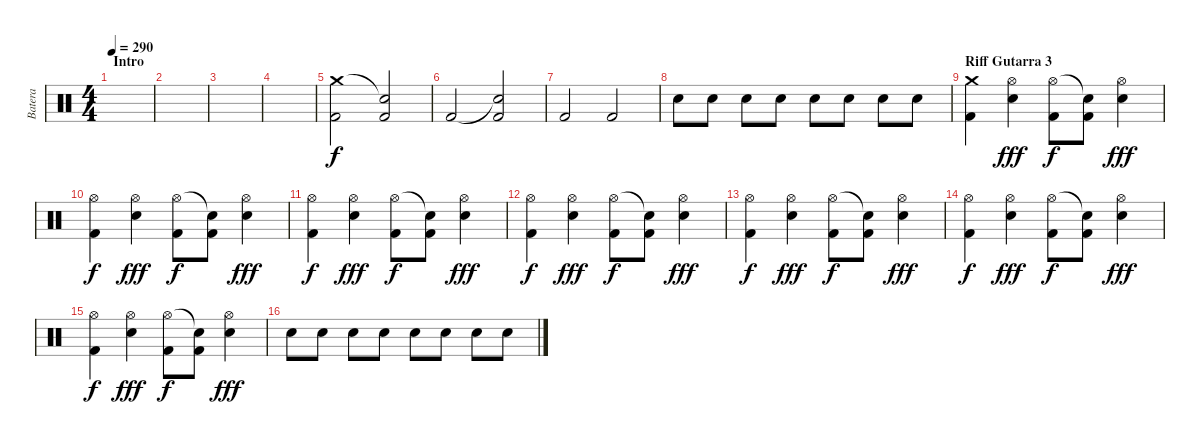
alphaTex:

\track ("Batera" "Batera") {instrument percussion}
\staff {score}
\articulation defaults
\ts (4 4)
\section ("" "Intro")
\tempo 290
\clef neutral
\ks c
|
|
|
|
("Crash medium (hit)" "Kick (hit) 2").2 ("Snare (hit)"{t} "Kick (hit) 2").2 |
"Kick (hit) 2".2 ("Snare (hit)"{t} "Kick (hit) 2").2 |
"Kick (hit) 2".2 "Kick (hit) 2".2 |
"Electric Snare (hit)".8 "Electric Snare (hit)".8 "Electric Snare (hit)".8 "Electric Snare (hit)".8 "Electric Snare (hit)".8 "Electric Snare (hit)".8 "Electric Snare (hit)".8 "Electric Snare (hit)".8 |
\section ("" "Riff Gutarra 3")
("Crash medium (hit)" "Kick (hit) 2").4 ("Hi-Hat (open)" "Electric Snare (hit)").4{dy fff} ("Hi-Hat (open)" "Kick (hit) 2").8{dy f} ("Snare (hit)"{t} "Kick (hit) 2").8 ("Hi-Hat (open)" "Electric Snare (hit)").4{dy fff} |
("Hi-Hat (open)" "Kick (hit) 2").4{dy f} ("Hi-Hat (open)" "Electric Snare (hit)").4{dy fff} ("Hi-Hat (open)" "Kick (hit) 2").8{dy f} ("Snare (hit)"{t} "Kick (hit) 2").8 ("Hi-Hat (open)" "Electric Snare (hit)").4{dy fff} |
("Hi-Hat (open)" "Kick (hit) 2").4{dy f} ("Hi-Hat (open)" "Electric Snare (hit)").4{dy fff} ("Hi-Hat (open)" "Kick (hit) 2").8{dy f} ("Snare (hit)"{t} "Kick (hit) 2").8 ("Hi-Hat (open)" "Electric Snare (hit)").4{dy fff} |
("Hi-Hat (open)" "Kick (hit) 2").4{dy f} ("Hi-Hat (open)" "Electric Snare (hit)").4{dy fff} ("Hi-Hat (open)" "Kick (hit) 2").8{dy f} ("Snare (hit)"{t} "Kick (hit) 2").8 ("Hi-Hat (open)" "Electric Snare (hit)").4{dy fff} |
("Hi-Hat (open)" "Kick (hit) 2").4{dy f} ("Hi-Hat (open)" "Electric Snare (hit)").4{dy fff} ("Hi-Hat (open)" "Kick (hit) 2").8{dy f} ("Snare (hit)"{t} "Kick (hit) 2").8 ("Hi-Hat (open)" "Electric Snare (hit)").4{dy fff} |
("Hi-Hat (open)" "Kick (hit) 2").4{dy f} ("Hi-Hat (open)" "Electric Snare (hit)").4{dy fff} ("Hi-Hat (open)" "Kick (hit) 2").8{dy f} ("Snare (hit)"{t} "Kick (hit) 2").8 ("Hi-Hat (open)" "Electric Snare (hit)").4{dy fff} |
("Hi-Hat (open)" "Kick (hit) 2").4{dy f} ("Hi-Hat (open)" "Electric Snare (hit)").4{dy fff} ("Hi-Hat (open)" "Kick (hit) 2").8{dy f} ("Snare (hit)"{t} "Kick (hit) 2").8 ("Hi-Hat (open)" "Electric Snare (hit)").4{dy fff} |
"Electric Snare (hit)".8 "Electric Snare (hit)".8 "Electric Snare (hit)".8 "Electric Snare (hit)".8 "Electric Snare (hit)".8 "Electric Snare (hit)".8 "Electric Snare (hit)".8 "Electric Snare (hit)".8
